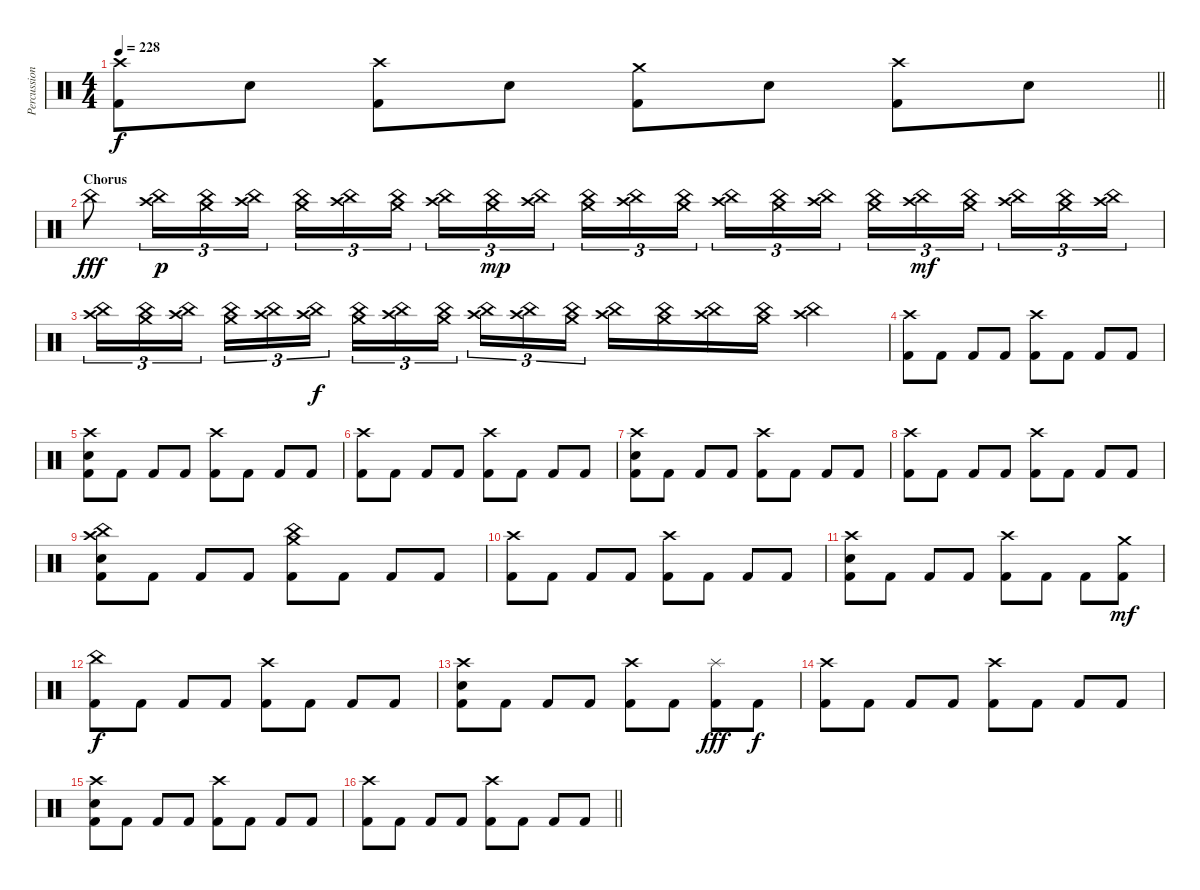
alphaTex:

\track ("Percussion" "Percussion") {instrument percussion}
\staff {score}
\articulation defaults
\ts (4 4)
\tempo 228
\clef neutral
\barLineRight lightlight
\ks c
("Crash high (hit)" "Kick (hit) 2").8{dy f} "Electric Snare (hit)".8 ("Crash high (hit)" "Kick (hit) 2").8 "Electric Snare (hit)".8 ("Crash medium (hit)" "Kick (hit) 2").8 "Electric Snare (hit)".8 ("Crash high (hit)" "Kick (hit) 2").8 "Electric Snare (hit)".8 |
\section ("" "Chorus")
"China (hit)".8{dy fff} ("Crash high (hit)" "China (hit)").16{tu (3 2) dy p} ("Crash medium (hit)" "China (hit)").16{tu (3 2)} ("Crash high (hit)" "China (hit)").16{tu (3 2)} ("Crash medium (hit)" "China (hit)").16{tu (3 2)} ("Crash high (hit)" "China (hit)").16{tu (3 2)} ("Crash medium (hit)" "China (hit)").16{tu (3 2)} ("Crash high (hit)" "China (hit)").16{tu (3 2)} ("Crash medium (hit)" "China (hit)").16{tu (3 2) dy mp} ("Crash high (hit)" "China (hit)").16{tu (3 2)} ("Crash medium (hit)" "China (hit)").16{tu (3 2)} ("Crash high (hit)" "China (hit)").16{tu (3 2)} ("Crash medium (hit)" "China (hit)").16{tu (3 2)} ("Crash high (hit)" "China (hit)").16{tu (3 2)} ("Crash medium (hit)" "China (hit)").16{tu (3 2)} ("Crash high (hit)" "China (hit)").16{tu (3 2)} ("Crash medium (hit)" "China (hit)").16{tu (3 2)} ("Crash high (hit)" "China (hit)").16{tu (3 2) dy mf} ("Crash medium (hit)" "China (hit)").16{tu (3 2)} ("Crash high (hit)" "China (hit)").16{tu (3 2)} ("Crash medium (hit)" "China (hit)").16{tu (3 2)} ("Crash high (hit)" "China (hit)").16{tu (3 2)} |
("Crash high (hit)" "China (hit)").16{tu (3 2)} ("Crash medium (hit)" "China (hit)").16{tu (3 2)} ("Crash high (hit)" "China (hit)").16{tu (3 2)} ("Crash medium (hit)" "China (hit)").16{tu (3 2)} ("Crash high (hit)" "China (hit)").16{tu (3 2)} ("Crash high (hit)" "China (hit)").16{tu (3 2) dy f} ("Crash medium (hit)" "China (hit)").16{tu (3 2)} ("Crash high (hit)" "China (hit)").16{tu (3 2)} ("Crash medium (hit)" "China (hit)").16{tu (3 2)} ("Crash high (hit)" "China (hit)").16{tu (3 2)} ("Crash high (hit)" "China (hit)").16{tu (3 2)} ("Crash medium (hit)" "China (hit)").16{tu (3 2)} ("Crash high (hit)" "China (hit)").16 ("Crash medium (hit)" "China (hit)").16 ("Crash high (hit)" "China (hit)").16 ("Crash medium (hit)" "China (hit)").16 ("Crash high (hit)" "China (hit)").4 |
("Crash high (hit)" "Kick (hit) 2").8 "Kick (hit) 2".8 "Kick (hit) 2".8 "Kick (hit) 2".8 ("Crash high (hit)" "Kick (hit) 2").8 "Kick (hit) 2".8 "Kick (hit) 2".8 "Kick (hit) 2".8 |
("Crash high (hit)" "Electric Snare (hit)" "Kick (hit) 2").8 "Kick (hit) 2".8 "Kick (hit) 2".8 "Kick (hit) 2".8 ("Crash high (hit)" "Kick (hit) 2").8 "Kick (hit) 2".8 "Kick (hit) 2".8 "Kick (hit) 2".8 |
("Crash high (hit)" "Kick (hit) 2").8 "Kick (hit) 2".8 "Kick (hit) 2".8 "Kick (hit) 2".8 ("Crash high (hit)" "Kick (hit) 2").8 "Kick (hit) 2".8 "Kick (hit) 2".8 "Kick (hit) 2".8 |
("Crash high (hit)" "Electric Snare (hit)" "Kick (hit) 2").8 "Kick (hit) 2".8 "Kick (hit) 2".8 "Kick (hit) 2".8 ("Crash high (hit)" "Kick (hit) 2").8 "Kick (hit) 2".8 "Kick (hit) 2".8 "Kick (hit) 2".8 |
("Crash high (hit)" "Kick (hit) 2").8 "Kick (hit) 2".8 "Kick (hit) 2".8 "Kick (hit) 2".8 ("Crash high (hit)" "Kick (hit) 2").8 "Kick (hit) 2".8 "Kick (hit) 2".8 "Kick (hit) 2".8 |
("China (hit)" "Crash high (hit)" "Electric Snare (hit)" "Kick (hit) 2").8 "Kick (hit) 2".8 "Kick (hit) 2".8 "Kick (hit) 2".8 ("Crash medium (hit)" "China (hit)" "Kick (hit) 2").8 "Kick (hit) 2".8 "Kick (hit) 2".8 "Kick (hit) 2".8 |
("Crash high (hit)" "Kick (hit) 2").8 "Kick (hit) 2".8 "Kick (hit) 2".8 "Kick (hit) 2".8 ("Crash high (hit)" "Kick (hit) 2").8 "Kick (hit) 2".8 "Kick (hit) 2".8 "Kick (hit) 2".8 |
("Crash high (hit)" "Electric Snare (hit)" "Kick (hit) 2").8 "Kick (hit) 2".8 "Kick (hit) 2".8 "Kick (hit) 2".8 ("Crash high (hit)" "Kick (hit) 2").8 "Kick (hit) 2".8 "Kick (hit) 2".8 ("Crash medium (hit)" "Kick (hit) 2").8{dy mf} |
("China (hit)" "Kick (hit) 2").8{dy f} "Kick (hit) 2".8 "Kick (hit) 2".8 "Kick (hit) 2".8 ("Crash high (hit)" "Kick (hit) 2").8 "Kick (hit) 2".8 "Kick (hit) 2".8 "Kick (hit) 2".8 |
("Crash high (hit)" "Electric Snare (hit)" "Kick (hit) 2").8 "Kick (hit) 2".8 "Kick (hit) 2".8 "Kick (hit) 2".8 ("Crash high (hit)" "Kick (hit) 2").8 "Kick (hit) 2".8 ("Splash (hit)" "Kick (hit) 2").8{dy fff} "Kick (hit) 2".8{dy f} |
("Crash high (hit)" "Kick (hit) 2").8 "Kick (hit) 2".8 "Kick (hit) 2".8 "Kick (hit) 2".8 ("Crash high (hit)" "Kick (hit) 2").8 "Kick (hit) 2".8 "Kick (hit) 2".8 "Kick (hit) 2".8 |
("Crash high (hit)" "Electric Snare (hit)" "Kick (hit) 2").8 "Kick (hit) 2".8 "Kick (hit) 2".8 "Kick (hit) 2".8 ("Crash high (hit)" "Kick (hit) 2").8 "Kick (hit) 2".8 "Kick (hit) 2".8 "Kick (hit) 2".8 |
\barLineRight lightlight
("Crash high (hit)" "Kick (hit) 2").8 "Kick (hit) 2".8 "Kick (hit) 2".8 "Kick (hit) 2".8 ("Crash high (hit)" "Kick (hit) 2").8 "Kick (hit) 2".8 "Kick (hit) 2".8 "Kick (hit) 2".8
